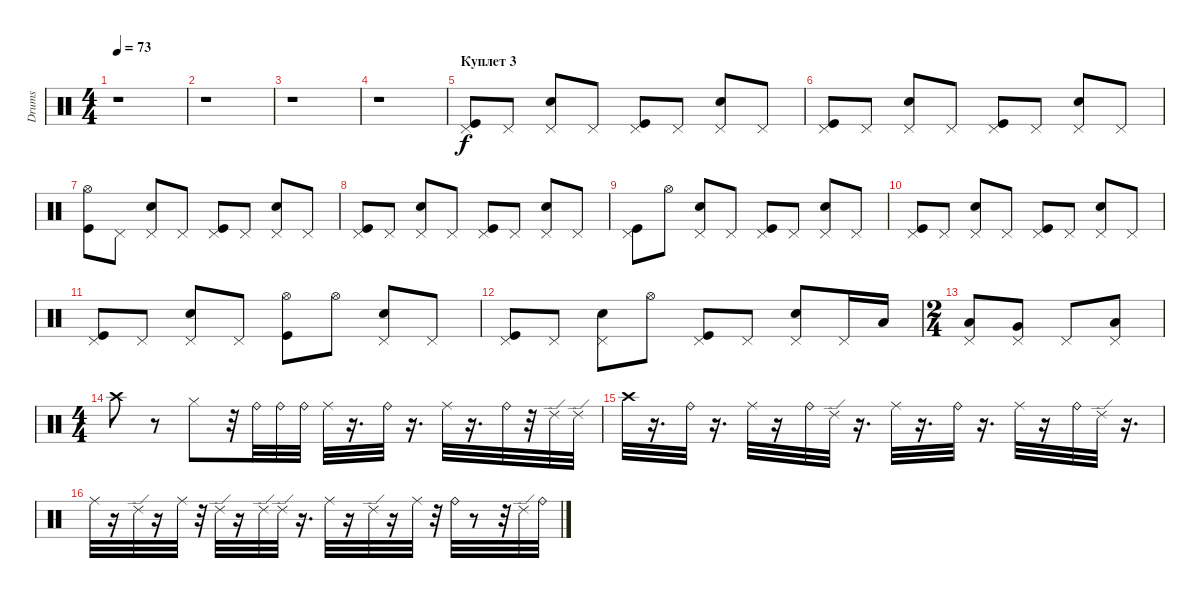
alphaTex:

\track ("Drums" "Drums") {instrument percussion}
\staff {score}
\articulation defaults
\ts (4 4)
\tempo 73
\clef neutral
\ks c
r.1{dy f} |
r.1 |
r.1 |
r.1 |
\section ("" "Куплет 3")
("Kick (hit)" "Pedal Hi-Hat (hit)").8 "Pedal Hi-Hat (hit)".8 ("Snare (hit) 2" "Pedal Hi-Hat (hit)").8 "Pedal Hi-Hat (hit)".8 ("Kick (hit)" "Pedal Hi-Hat (hit)").8 "Pedal Hi-Hat (hit)".8 ("Snare (hit) 2" "Pedal Hi-Hat (hit)").8 "Pedal Hi-Hat (hit)".8 |
("Kick (hit)" "Pedal Hi-Hat (hit)").8 "Pedal Hi-Hat (hit)".8 ("Snare (hit) 2" "Pedal Hi-Hat (hit)").8 "Pedal Hi-Hat (hit)".8 ("Kick (hit)" "Pedal Hi-Hat (hit)").8 "Pedal Hi-Hat (hit)".8 ("Snare (hit) 2" "Pedal Hi-Hat (hit)").8 "Pedal Hi-Hat (hit)".8 |
("Hi-Hat (open)" "Kick (hit)").8 "Pedal Hi-Hat (hit)".8 ("Snare (hit) 2" "Pedal Hi-Hat (hit)").8 "Pedal Hi-Hat (hit)".8 ("Kick (hit)" "Pedal Hi-Hat (hit)").8 "Pedal Hi-Hat (hit)".8 ("Snare (hit) 2" "Pedal Hi-Hat (hit)").8 "Pedal Hi-Hat (hit)".8 |
("Kick (hit)" "Pedal Hi-Hat (hit)").8 "Pedal Hi-Hat (hit)".8 ("Snare (hit) 2" "Pedal Hi-Hat (hit)").8 "Pedal Hi-Hat (hit)".8 ("Kick (hit)" "Pedal Hi-Hat (hit)").8 "Pedal Hi-Hat (hit)".8 ("Snare (hit) 2" "Pedal Hi-Hat (hit)").8 "Pedal Hi-Hat (hit)".8 |
("Kick (hit)" "Pedal Hi-Hat (hit)").8 "Hi-Hat (open)".8 ("Pedal Hi-Hat (hit)" "Snare (hit) 2").8 "Pedal Hi-Hat (hit)".8 ("Kick (hit)" "Pedal Hi-Hat (hit)").8 "Pedal Hi-Hat (hit)".8 ("Snare (hit) 2" "Pedal Hi-Hat (hit)").8 "Pedal Hi-Hat (hit)".8 |
("Kick (hit)" "Pedal Hi-Hat (hit)").8 "Pedal Hi-Hat (hit)".8 ("Snare (hit) 2" "Pedal Hi-Hat (hit)").8 "Pedal Hi-Hat (hit)".8 ("Kick (hit)" "Pedal Hi-Hat (hit)").8 "Pedal Hi-Hat (hit)".8 ("Snare (hit) 2" "Pedal Hi-Hat (hit)").8 "Pedal Hi-Hat (hit)".8 |
("Kick (hit)" "Pedal Hi-Hat (hit)").8 "Pedal Hi-Hat (hit)".8 ("Snare (hit) 2" "Pedal Hi-Hat (hit)").8 "Pedal Hi-Hat (hit)".8 ("Kick (hit)" "Hi-Hat (open)").8 "Hi-Hat (open)".8 ("Snare (hit) 2" "Pedal Hi-Hat (hit)").8 "Pedal Hi-Hat (hit)".8 |
("Kick (hit)" "Pedal Hi-Hat (hit)").8 "Pedal Hi-Hat (hit)".8 ("Snare (hit) 2" "Pedal Hi-Hat (hit)").8 "Hi-Hat (open)".8 ("Kick (hit)" "Pedal Hi-Hat (hit)").8 "Pedal Hi-Hat (hit)".8 ("Snare (hit) 2" "Pedal Hi-Hat (hit)").8 "Pedal Hi-Hat (hit)".16 "Low Tom (hit)".16 |
\ts (2 4)
("Pedal Hi-Hat (hit)" "Low Tom (hit)").8 ("Very Low Tom (hit)" "Pedal Hi-Hat (hit)").8 "Pedal Hi-Hat (hit)".8 ("Low Tom (hit)" "Pedal Hi-Hat (hit)").8 |
\ts (4 4)
"Crash high (hit)".8 r.8 "Hi-Hat (closed)".8 r.32 "Ride (bell)".32 "Ride (bell)".32 "Ride (bell)".32 "Ride (middle)".32 r.16{d} "Ride (bell)".32 r.16{d} "Ride (middle)".32 r.16{d} "Ride (bell)".32 r.32 "Ride (edge) 2".32 "Ride (edge) 2".32 |
"Crash high (hit)".32 r.16{d} "Ride (bell)".32 r.16{d} "Ride (middle)".32 r.16 "Ride (bell)".32 "Ride (edge) 2".32 r.16{d} "Ride (middle)".32 r.16{d} "Ride (bell)".32 r.16{d} "Ride (middle)".32 r.16 "Ride (bell)".32 "Ride (edge) 2".32 r.16{d} |
"Ride (middle)".32 r.16 "Ride (edge) 2".32 r.16 "Ride (middle)".32 r.32 "Ride (edge) 2".32 r.16 "Ride (edge) 2".32 "Ride (edge) 2".32 r.16{d} "Ride (middle)".32 r.16 "Ride (edge) 2".32 r.16 "Ride (middle)".32 r.32 "Ride (bell)".32 r.8 r.32 "Ride (edge) 2".32 "Ride (bell)".32
